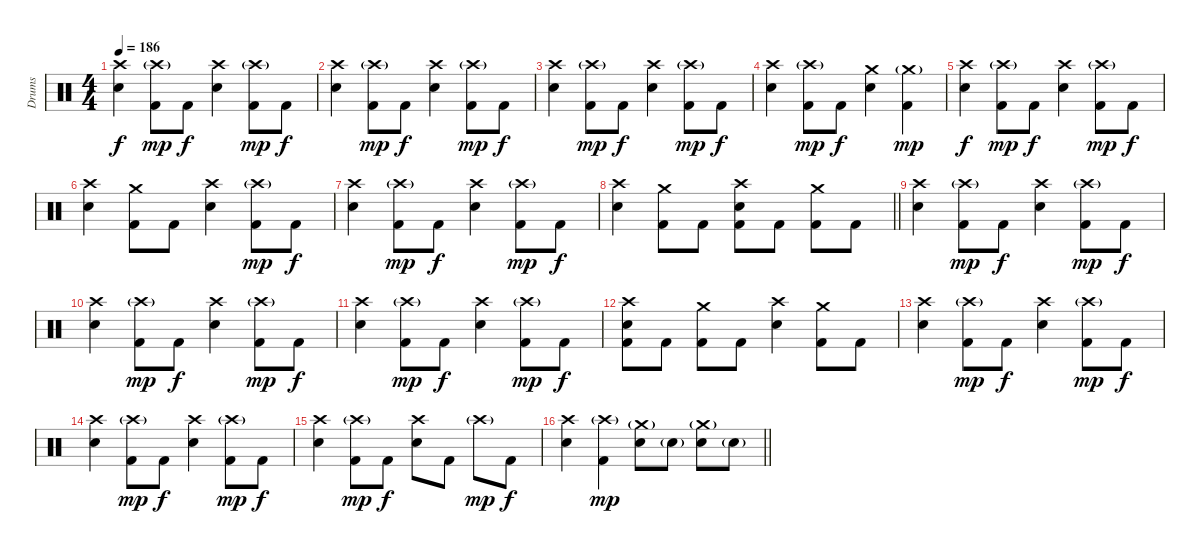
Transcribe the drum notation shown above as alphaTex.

\track ("Drums" "Drums") {instrument percussion}
\staff {score}
\articulation defaults
\ts (4 4)
\section ("" "")
\tempo 186
\clef neutral
\ks c
("Crash high (hit)" "Electric Snare (hit)").4{dy f} ("Crash high (hit)"{g} "Kick (hit) 2").8{dy mp} "Kick (hit) 2".8{dy f} ("Crash high (hit)" "Electric Snare (hit)").4 ("Crash high (hit)"{g} "Kick (hit) 2").8{dy mp} "Kick (hit) 2".8{dy f} |
("Crash high (hit)" "Electric Snare (hit)").4 ("Crash high (hit)"{g} "Kick (hit) 2").8{dy mp} "Kick (hit) 2".8{dy f} ("Crash high (hit)" "Electric Snare (hit)").4 ("Crash high (hit)"{g} "Kick (hit) 2").8{dy mp} "Kick (hit) 2".8{dy f} |
("Crash high (hit)" "Electric Snare (hit)").4 ("Crash high (hit)"{g} "Kick (hit) 2").8{dy mp} "Kick (hit) 2".8{dy f} ("Crash high (hit)" "Electric Snare (hit)").4 ("Crash high (hit)"{g} "Kick (hit) 2").8{dy mp} "Kick (hit) 2".8{dy f} |
("Crash high (hit)" "Electric Snare (hit)").4 ("Crash high (hit)"{g} "Kick (hit) 2").8{dy mp} "Kick (hit) 2".8{dy f} ("Crash medium (hit)" "Electric Snare (hit)").4 ("Crash medium (hit)"{g} "Kick (hit) 2").4{dy mp} |
("Crash high (hit)" "Electric Snare (hit)").4{dy f} ("Crash high (hit)"{g} "Kick (hit) 2").8{dy mp} "Kick (hit) 2".8{dy f} ("Crash high (hit)" "Electric Snare (hit)").4 ("Crash high (hit)"{g} "Kick (hit) 2").8{dy mp} "Kick (hit) 2".8{dy f} |
("Crash high (hit)" "Electric Snare (hit)").4 ("Crash medium (hit)" "Kick (hit) 2").8 "Kick (hit) 2".8 ("Crash high (hit)" "Electric Snare (hit)").4 ("Crash high (hit)"{g} "Kick (hit) 2").8{dy mp} "Kick (hit) 2".8{dy f} |
("Crash high (hit)" "Electric Snare (hit)").4 ("Crash high (hit)"{g} "Kick (hit) 2").8{dy mp} "Kick (hit) 2".8{dy f} ("Crash high (hit)" "Electric Snare (hit)").4 ("Crash high (hit)"{g} "Kick (hit) 2").8{dy mp} "Kick (hit) 2".8{dy f} |
\barLineRight lightlight
("Crash high (hit)" "Electric Snare (hit)").4 ("Crash medium (hit)" "Kick (hit) 2").8 "Kick (hit) 2".8 ("Crash high (hit)" "Electric Snare (hit)" "Kick (hit) 2").8 "Kick (hit) 2".8 ("Crash medium (hit)" "Kick (hit) 2").8 "Kick (hit) 2".8 |
("Crash high (hit)" "Electric Snare (hit)").4 ("Crash high (hit)"{g} "Kick (hit) 2").8{dy mp} "Kick (hit) 2".8{dy f} ("Crash high (hit)" "Electric Snare (hit)").4 ("Crash high (hit)"{g} "Kick (hit) 2").8{dy mp} "Kick (hit) 2".8{dy f} |
("Crash high (hit)" "Electric Snare (hit)").4 ("Crash high (hit)"{g} "Kick (hit) 2").8{dy mp} "Kick (hit) 2".8{dy f} ("Crash high (hit)" "Electric Snare (hit)").4 ("Crash high (hit)"{g} "Kick (hit) 2").8{dy mp} "Kick (hit) 2".8{dy f} |
("Crash high (hit)" "Electric Snare (hit)").4 ("Crash high (hit)"{g} "Kick (hit) 2").8{dy mp} "Kick (hit) 2".8{dy f} ("Crash high (hit)" "Electric Snare (hit)").4 ("Crash high (hit)"{g} "Kick (hit) 2").8{dy mp} "Kick (hit) 2".8{dy f} |
("Crash high (hit)" "Electric Snare (hit)" "Kick (hit) 2").8 "Kick (hit) 2".8 ("Crash medium (hit)" "Kick (hit) 2").8 "Kick (hit) 2".8 ("Crash high (hit)" "Electric Snare (hit)").4 ("Crash medium (hit)" "Kick (hit) 2").8 "Kick (hit) 2".8 |
("Crash high (hit)" "Electric Snare (hit)").4 ("Crash high (hit)"{g} "Kick (hit) 2").8{dy mp} "Kick (hit) 2".8{dy f} ("Crash high (hit)" "Electric Snare (hit)").4 ("Crash high (hit)"{g} "Kick (hit) 2").8{dy mp} "Kick (hit) 2".8{dy f} |
("Crash high (hit)" "Electric Snare (hit)").4 ("Crash high (hit)"{g} "Kick (hit) 2").8{dy mp} "Kick (hit) 2".8{dy f} ("Crash high (hit)" "Electric Snare (hit)").4 ("Crash high (hit)"{g} "Kick (hit) 2").8{dy mp} "Kick (hit) 2".8{dy f} |
("Crash high (hit)" "Electric Snare (hit)").4 ("Crash high (hit)"{g} "Kick (hit) 2").8{dy mp} "Kick (hit) 2".8{dy f} ("Crash high (hit)" "Electric Snare (hit)").8 "Kick (hit) 2".8 "Crash high (hit)"{g}.8{dy mp} "Kick (hit) 2".8{dy f} |
\barLineRight lightlight
("Crash high (hit)" "Electric Snare (hit)").4 ("Crash high (hit)"{g} "Kick (hit) 2").4{dy mp} ("Crash medium (hit)"{g} "Electric Snare (hit)").8 "Electric Snare (hit)"{g}.8 ("Crash medium (hit)"{g} "Electric Snare (hit)").8 "Electric Snare (hit)"{g}.8
